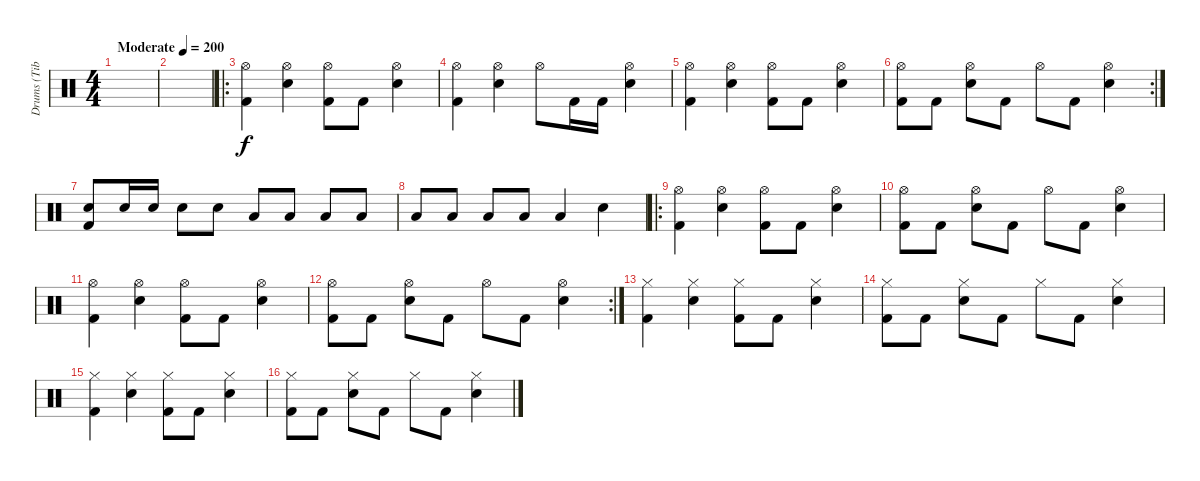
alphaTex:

\track ("Drums (Tibcsi Kiss)" "Drums (Tib") {instrument percussion}
\staff {score}
\articulation defaults
\ts (4 4)
\tempo (200 "Moderate")
\clef neutral
\ks c
|
|
\ro
("Hi-Hat (open)" "Kick (hit) 2").4 ("Hi-Hat (open)" "Snare (hit) 2").4 ("Hi-Hat (open)" "Kick (hit) 2").8 "Kick (hit) 2".8 ("Hi-Hat (open)" "Snare (hit) 2").4 |
("Hi-Hat (open)" "Kick (hit) 2").4 ("Hi-Hat (open)" "Snare (hit) 2").4 "Hi-Hat (open)".8 "Kick (hit) 2".16 "Kick (hit) 2".16 ("Hi-Hat (open)" "Snare (hit) 2").4 |
("Hi-Hat (open)" "Kick (hit) 2").4 ("Hi-Hat (open)" "Snare (hit) 2").4 ("Hi-Hat (open)" "Kick (hit) 2").8 "Kick (hit) 2".8 ("Hi-Hat (open)" "Snare (hit) 2").4 |
\rc 2
("Hi-Hat (open)" "Kick (hit) 2").8 "Kick (hit) 2".8 ("Hi-Hat (open)" "Snare (hit) 2").8 "Kick (hit) 2".8 "Hi-Hat (open)".8 "Kick (hit) 2".8 ("Hi-Hat (open)" "Snare (hit) 2").4 |
("Snare (hit) 2" "Kick (hit) 2").8 "Snare (hit) 2".16 "Snare (hit) 2".16 "Snare (hit) 2".8 "Snare (hit) 2".8 "Low Tom (hit)".8 "Low Floor Tom (hit)".8 "Low Floor Tom (hit)".8 "Low Tom (hit)".8 |
"Low Tom (hit)".8 "Low Floor Tom (hit)".8 "Low Floor Tom (hit)".8 "Low Tom (hit)".8 "Low Floor Tom (hit)".4 "Snare (hit) 2".4 |
\ro
("Hi-Hat (open)" "Kick (hit) 2").4 ("Hi-Hat (open)" "Snare (hit) 2").4 ("Hi-Hat (open)" "Kick (hit) 2").8 "Kick (hit) 2".8 ("Hi-Hat (open)" "Snare (hit) 2").4 |
("Hi-Hat (open)" "Kick (hit) 2").8 "Kick (hit) 2".8 ("Hi-Hat (open)" "Snare (hit) 2").8 "Kick (hit) 2".8 "Hi-Hat (open)".8 "Kick (hit) 2".8 ("Hi-Hat (open)" "Snare (hit) 2").4 |
("Hi-Hat (open)" "Kick (hit) 2").4 ("Hi-Hat (open)" "Snare (hit) 2").4 ("Hi-Hat (open)" "Kick (hit) 2").8 "Kick (hit) 2".8 ("Hi-Hat (open)" "Snare (hit) 2").4 |
\rc 2
("Hi-Hat (open)" "Kick (hit) 2").8 "Kick (hit) 2".8 ("Hi-Hat (open)" "Snare (hit) 2").8 "Kick (hit) 2".8 "Hi-Hat (open)".8 "Kick (hit) 2".8 ("Hi-Hat (open)" "Snare (hit) 2").4 |
("Hi-Hat (closed)" "Kick (hit) 2").4 ("Hi-Hat (closed)" "Snare (hit) 2").4 ("Hi-Hat (closed)" "Kick (hit) 2").8 "Kick (hit) 2".8 ("Hi-Hat (closed)" "Snare (hit) 2").4 |
("Hi-Hat (closed)" "Kick (hit) 2").8 "Kick (hit) 2".8 ("Hi-Hat (closed)" "Snare (hit) 2").8 "Kick (hit) 2".8 "Hi-Hat (closed)".8 "Kick (hit) 2".8 ("Hi-Hat (closed)" "Snare (hit) 2").4 |
("Hi-Hat (closed)" "Kick (hit) 2").4 ("Hi-Hat (closed)" "Snare (hit) 2").4 ("Hi-Hat (closed)" "Kick (hit) 2").8 "Kick (hit) 2".8 ("Hi-Hat (closed)" "Snare (hit) 2").4 |
("Hi-Hat (closed)" "Kick (hit) 2").8 "Kick (hit) 2".8 ("Hi-Hat (closed)" "Snare (hit) 2").8 "Kick (hit) 2".8 "Hi-Hat (closed)".8 "Kick (hit) 2".8 ("Hi-Hat (closed)" "Snare (hit) 2").4
